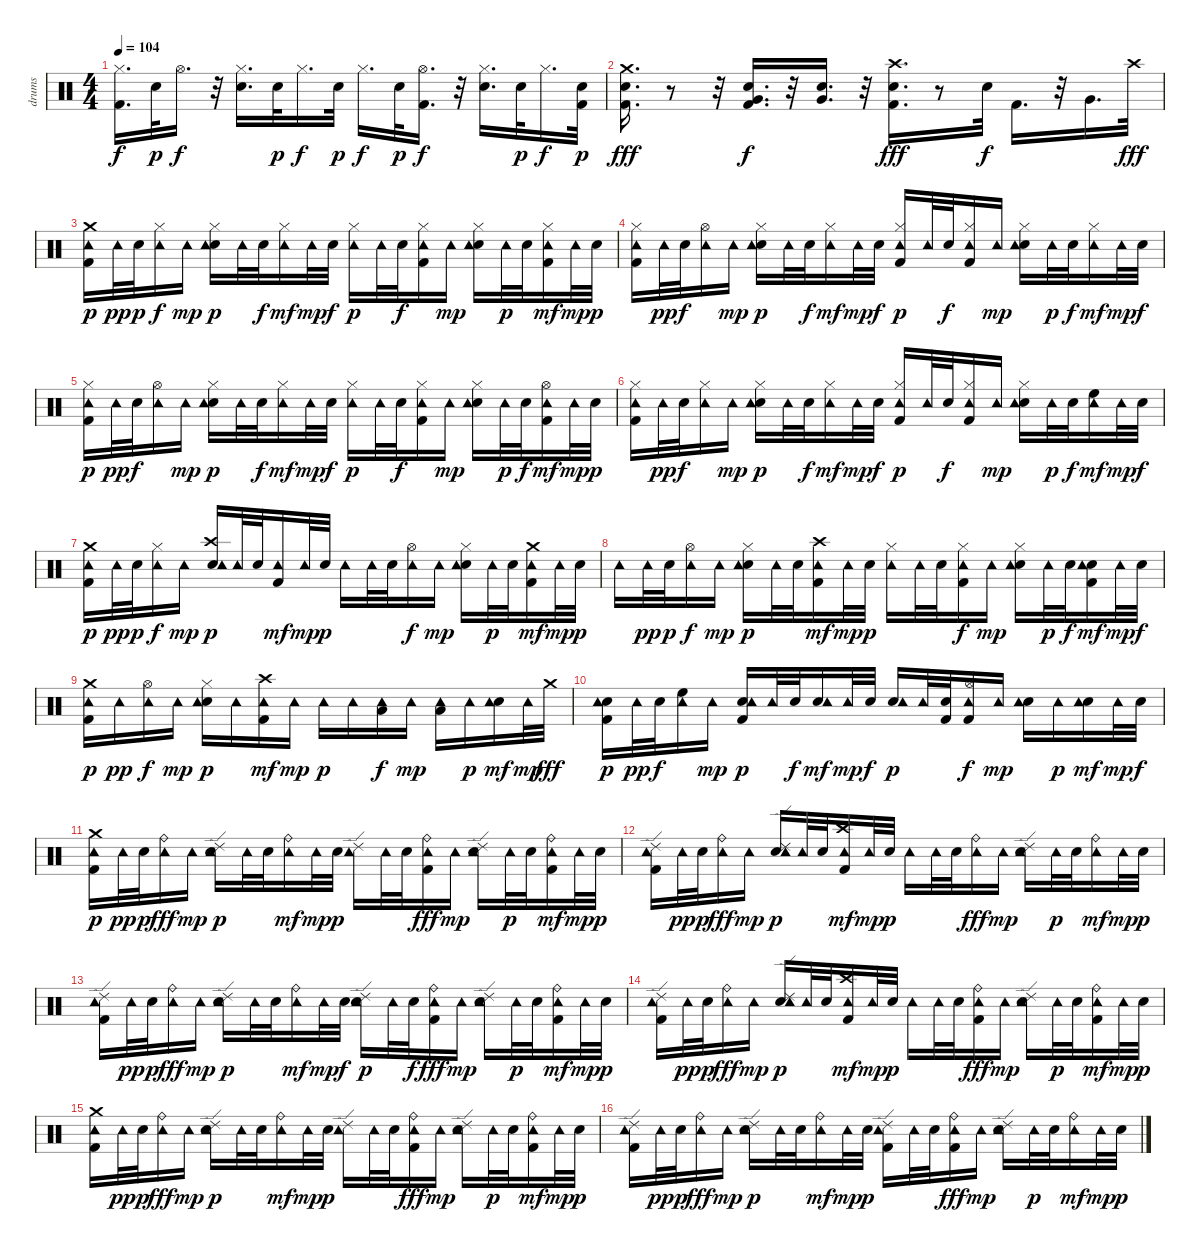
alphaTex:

\track ("drums" "drums") {instrument percussion}
\staff {score}
\articulation defaults
\ts (4 4)
\tempo 104
\clef neutral
\ks c
("Kick (hit) 2" "Hi-Hat (closed)").16{d dy f} "Electric Snare (hit)".32{dy p} "Hi-Hat (open)".16{d dy f} r.32 ("Electric Snare (hit)" "Hi-Hat (closed)").16{d} "Electric Snare (hit)".32{dy p} "Hi-Hat (closed)".16{d dy f} "Electric Snare (hit)".32{dy p} "Hi-Hat (closed)".16{d dy f} "Electric Snare (hit)".32{dy p} ("Kick (hit) 2" "Hi-Hat (open)").16{d dy f} r.32 ("Electric Snare (hit)" "Hi-Hat (closed)").16{d} "Electric Snare (hit)".32{dy p} "Hi-Hat (closed)".16{d dy f} ("Kick (hit) 2" "Electric Snare (hit)").32{dy p} |
("Electric Snare (hit)" "Kick (hit) 2" "Crash medium (hit)").16{d dy fff} r.8 r.32 ("Very Low Tom (hit)" "Electric Snare (hit)" "Kick (hit) 2").16{d dy f} r.32 ("Very Low Tom (hit)" "Electric Snare (hit)").16{d} r.32 ("Electric Snare (hit)" "Kick (hit) 2" "Crash high (hit)").16{d dy fff} r.8 "Electric Snare (hit)".32{dy f} "Kick (hit) 2".16{d} r.32 "Very Low Tom (hit)".16{d} "Crash high (hit)".32{dy fff} |
("Kick (hit) 2" "Crash medium (hit)" "Tambourine (hit)").16{dy p} "Tambourine (hit)".32{dy pp} "Electric Snare (hit)".32{dy p} ("Hi-Hat (closed)" "Tambourine (hit)").16{dy f} "Tambourine (hit)".16{dy mp} ("Electric Snare (hit)" "Hi-Hat (closed)" "Tambourine (hit)").16{dy p} "Tambourine (hit)".32 "Electric Snare (hit)".32{dy f} ("Hi-Hat (closed)" "Tambourine (hit)").16{dy mf} "Tambourine (hit)".32{dy mp} "Electric Snare (hit)".32{dy f} ("Hi-Hat (closed)" "Tambourine (hit)").16{dy p} "Tambourine (hit)".32 "Electric Snare (hit)".32{dy f} ("Kick (hit) 2" "Hi-Hat (closed)" "Tambourine (hit)").16 "Tambourine (hit)".16{dy mp} ("Electric Snare (hit)" "Hi-Hat (closed)" "Tambourine (hit)").16 "Tambourine (hit)".32{dy p} "Electric Snare (hit)".32 ("Kick (hit) 2" "Hi-Hat (closed)" "Tambourine (hit)").16{dy mf} "Tambourine (hit)".32{dy mp} "Electric Snare (hit)".32{dy p} |
("Kick (hit) 2" "Hi-Hat (closed)" "Tambourine (hit)").16 "Tambourine (hit)".32{dy pp} "Electric Snare (hit)".32{dy f} ("Hi-Hat (open)" "Tambourine (hit)").16 "Tambourine (hit)".16{dy mp} ("Electric Snare (hit)" "Hi-Hat (closed)" "Tambourine (hit)").16{dy p} "Tambourine (hit)".32 "Electric Snare (hit)".32{dy f} ("Hi-Hat (closed)" "Tambourine (hit)").16{dy mf} "Tambourine (hit)".32{dy mp} "Electric Snare (hit)".32{dy f} ("Kick (hit) 2" "Hi-Hat (closed)" "Tambourine (hit)").16{dy p} "Tambourine (hit)".32 "Electric Snare (hit)".32{dy f} ("Kick (hit) 2" "Hi-Hat (closed)" "Tambourine (hit)").16 "Tambourine (hit)".16{dy mp} ("Electric Snare (hit)" "Hi-Hat (closed)" "Tambourine (hit)").16 "Tambourine (hit)".32{dy p} "Electric Snare (hit)".32{dy f} ("Hi-Hat (closed)" "Tambourine (hit)").16{dy mf} "Tambourine (hit)".32{dy mp} "Electric Snare (hit)".32{dy f} |
("Kick (hit) 2" "Hi-Hat (closed)" "Tambourine (hit)").16{dy p} "Tambourine (hit)".32{dy pp} "Electric Snare (hit)".32{dy f} ("Hi-Hat (open)" "Tambourine (hit)").16 "Tambourine (hit)".16{dy mp} ("Electric Snare (hit)" "Hi-Hat (closed)" "Tambourine (hit)").16{dy p} "Tambourine (hit)".32 "Electric Snare (hit)".32{dy f} ("Hi-Hat (closed)" "Tambourine (hit)").16{dy mf} "Tambourine (hit)".32{dy mp} "Electric Snare (hit)".32{dy f} ("Hi-Hat (closed)" "Tambourine (hit)").16{dy p} "Tambourine (hit)".32 "Electric Snare (hit)".32{dy f} ("Kick (hit) 2" "Hi-Hat (closed)" "Tambourine (hit)").16 "Tambourine (hit)".16{dy mp} ("Electric Snare (hit)" "Hi-Hat (closed)" "Tambourine (hit)").16 "Tambourine (hit)".32{dy p} "Electric Snare (hit)".32{dy f} ("Kick (hit) 2" "Hi-Hat (open)" "Tambourine (hit)").16{dy mf} "Tambourine (hit)".32{dy mp} "Electric Snare (hit)".32{dy p} |
("Kick (hit) 2" "Hi-Hat (closed)" "Tambourine (hit)").16 "Tambourine (hit)".32{dy pp} "Electric Snare (hit)".32{dy f} ("Hi-Hat (closed)" "Tambourine (hit)").16 "Tambourine (hit)".16{dy mp} ("Electric Snare (hit)" "Hi-Hat (closed)" "Tambourine (hit)").16{dy p} "Tambourine (hit)".32 "Electric Snare (hit)".32{dy f} ("Hi-Hat (closed)" "Tambourine (hit)").16{dy mf} "Tambourine (hit)".32{dy mp} "Electric Snare (hit)".32{dy f} ("Kick (hit) 2" "Hi-Hat (closed)" "Tambourine (hit)").16{dy p} "Tambourine (hit)".32 "Electric Snare (hit)".32{dy f} ("Kick (hit) 2" "Hi-Hat (closed)" "Tambourine (hit)").16 "Tambourine (hit)".16{dy mp} ("Electric Snare (hit)" "Hi-Hat (closed)" "Tambourine (hit)").16 "Tambourine (hit)".32{dy p} "Electric Snare (hit)".32{dy f} ("High Floor Tom (hit)" "Tambourine (hit)").16{dy mf} "Tambourine (hit)".32{dy mp} "Electric Snare (hit)".32{dy f} |
("Kick (hit) 2" "Crash medium (hit)" "Tambourine (hit)").16{dy p} "Tambourine (hit)".32{dy pp} "Electric Snare (hit)".32{dy p} ("Hi-Hat (closed)" "Tambourine (hit)").16{dy f} "Tambourine (hit)".16{dy mp} ("Electric Snare (hit)" "Crash high (hit)" "Tambourine (hit)").16{dy p} "Tambourine (hit)".32 "Electric Snare (hit)".32 ("Kick (hit) 2" "Tambourine (hit)").16{dy mf} "Tambourine (hit)".32{dy mp} "Electric Snare (hit)".32{dy p} "Tambourine (hit)".16 "Tambourine (hit)".32 "Electric Snare (hit)".32 ("Hi-Hat (open)" "Tambourine (hit)").16{dy f} "Tambourine (hit)".16{dy mp} ("Electric Snare (hit)" "Hi-Hat (closed)" "Tambourine (hit)").16 "Tambourine (hit)".32{dy p} "Electric Snare (hit)".32 ("Kick (hit) 2" "Crash medium (hit)" "Tambourine (hit)").16{dy mf} "Tambourine (hit)".32{dy mp} "Electric Snare (hit)".32{dy p} |
"Tambourine (hit)".16 "Tambourine (hit)".32{dy pp} "Electric Snare (hit)".32{dy p} ("Hi-Hat (open)" "Tambourine (hit)").16{dy f} "Tambourine (hit)".16{dy mp} ("Electric Snare (hit)" "Hi-Hat (closed)" "Tambourine (hit)").16{dy p} "Tambourine (hit)".32 "Electric Snare (hit)".32 ("Kick (hit) 2" "Crash high (hit)" "Tambourine (hit)").16{dy mf} "Tambourine (hit)".32{dy mp} "Electric Snare (hit)".32{dy p} ("Hi-Hat (closed)" "Tambourine (hit)").16 "Tambourine (hit)".32 "Electric Snare (hit)".32 ("Kick (hit) 2" "Hi-Hat (closed)" "Tambourine (hit)").16{dy f} "Tambourine (hit)".16{dy mp} ("Electric Snare (hit)" "Hi-Hat (closed)" "Tambourine (hit)").16 "Tambourine (hit)".32{dy p} "Electric Snare (hit)".32{dy f} ("Kick (hit) 2" "Electric Snare (hit)" "Tambourine (hit)").16{dy mf} "Tambourine (hit)".32{dy mp} "Electric Snare (hit)".32{dy f} |
("Kick (hit) 2" "Crash medium (hit)" "Tambourine (hit)").16{dy p} "Tambourine (hit)".16{dy pp} ("Hi-Hat (open)" "Tambourine (hit)").16{dy f} "Tambourine (hit)".16{dy mp} ("Electric Snare (hit)" "Hi-Hat (closed)" "Tambourine (hit)").16{dy p} "Tambourine (hit)".16 ("Kick (hit) 2" "Crash high (hit)" "Tambourine (hit)").16{dy mf} "Tambourine (hit)".16{dy mp} "Tambourine (hit)".16{dy p} "Tambourine (hit)".16 ("Low Tom (hit)" "Tambourine (hit)").16{dy f} "Tambourine (hit)".16{dy mp} ("Low Tom (hit)" "Tambourine (hit)").16 "Tambourine (hit)".16{dy p} ("Electric Snare (hit)" "Tambourine (hit)").16{dy mf} "Tambourine (hit)".32{dy mp} "Crash medium (hit)".32{dy fff} |
("Electric Snare (hit)" "Kick (hit) 2" "Tambourine (hit)").16{dy p} "Tambourine (hit)".32{dy pp} "Electric Snare (hit)".32{dy f} ("High Floor Tom (hit)" "Tambourine (hit)").16 "Tambourine (hit)".16{dy mp} ("Kick (hit) 2" "Electric Snare (hit)" "Tambourine (hit)").16{dy p} "Tambourine (hit)".32 "Electric Snare (hit)".32{dy f} ("Electric Snare (hit)" "Tambourine (hit)").16{dy mf} "Tambourine (hit)".32{dy mp} "Electric Snare (hit)".32{dy f} ("Electric Snare (hit)" "Tambourine (hit)").16{dy p} "Tambourine (hit)".32 ("Kick (hit) 2" "Electric Snare (hit)").32 ("Kick (hit) 2" "Hi-Hat (open)" "Tambourine (hit)").16{dy f} "Tambourine (hit)".16{dy mp} ("Electric Snare (hit)" "Tambourine (hit)").16 "Tambourine (hit)".16{dy p} ("Electric Snare (hit)" "Tambourine (hit)").16{dy mf} "Tambourine (hit)".32{dy mp} "Electric Snare (hit)".32{dy f} |
("Kick (hit) 2" "Crash medium (hit)" "Tambourine (hit)").16{dy p} "Tambourine (hit)".32{dy pp} "Electric Snare (hit)".32{dy p} ("Ride (bell)" "Tambourine (hit)").16{dy fff} "Tambourine (hit)".16{dy mp} ("Electric Snare (hit)" "Ride (edge) 2" "Tambourine (hit)").16{dy p} "Tambourine (hit)".32 "Electric Snare (hit)".32 ("Ride (bell)" "Tambourine (hit)").16{dy mf} "Tambourine (hit)".32{dy mp} "Electric Snare (hit)".32{dy p} ("Ride (edge) 2" "Tambourine (hit)").16 "Tambourine (hit)".32 "Electric Snare (hit)".32 ("Kick (hit) 2" "Ride (bell)" "Tambourine (hit)").16{dy fff} "Tambourine (hit)".16{dy mp} ("Electric Snare (hit)" "Ride (edge) 2" "Tambourine (hit)").16 "Tambourine (hit)".32{dy p} "Electric Snare (hit)".32 ("Kick (hit) 2" "Ride (bell)" "Tambourine (hit)").16{dy mf} "Tambourine (hit)".32{dy mp} "Electric Snare (hit)".32{dy p} |
("Kick (hit) 2" "Ride (edge) 2" "Tambourine (hit)").16 "Tambourine (hit)".32{dy pp} "Electric Snare (hit)".32{dy p} ("Ride (bell)" "Tambourine (hit)").16{dy fff} "Tambourine (hit)".16{dy mp} ("Electric Snare (hit)" "Ride (edge) 2" "Tambourine (hit)").16{dy p} "Tambourine (hit)".32 "Electric Snare (hit)".32 ("Kick (hit) 2" "Crash high (hit)" "Tambourine (hit)").16{dy mf} "Tambourine (hit)".32{dy mp} "Electric Snare (hit)".32{dy p} "Tambourine (hit)".16 "Tambourine (hit)".32 "Electric Snare (hit)".32 ("Ride (bell)" "Tambourine (hit)").16{dy fff} "Tambourine (hit)".16{dy mp} ("Electric Snare (hit)" "Ride (edge) 2" "Tambourine (hit)").16 "Tambourine (hit)".32{dy p} "Electric Snare (hit)".32 ("Ride (bell)" "Tambourine (hit)").16{dy mf} "Tambourine (hit)".32{dy mp} "Electric Snare (hit)".32{dy p} |
("Kick (hit) 2" "Ride (edge) 2" "Tambourine (hit)").16 "Tambourine (hit)".32{dy pp} "Electric Snare (hit)".32{dy p} ("Ride (bell)" "Tambourine (hit)").16{dy fff} "Tambourine (hit)".16{dy mp} ("Electric Snare (hit)" "Ride (edge) 2" "Tambourine (hit)").16{dy p} "Tambourine (hit)".32 "Electric Snare (hit)".32 ("Ride (bell)" "Tambourine (hit)").16{dy mf} "Tambourine (hit)".32{dy mp} "Electric Snare (hit)".32{dy f} ("Electric Snare (hit)" "Ride (edge) 2" "Tambourine (hit)").16{dy p} "Tambourine (hit)".32 "Electric Snare (hit)".32{dy f} ("Kick (hit) 2" "Ride (bell)" "Tambourine (hit)").16{dy fff} "Tambourine (hit)".16{dy mp} ("Electric Snare (hit)" "Ride (edge) 2" "Tambourine (hit)").16 "Tambourine (hit)".32{dy p} "Electric Snare (hit)".32 ("Kick (hit) 2" "Ride (bell)" "Tambourine (hit)").16{dy mf} "Tambourine (hit)".32{dy mp} "Electric Snare (hit)".32{dy p} |
("Kick (hit) 2" "Ride (edge) 2" "Tambourine (hit)").16 "Tambourine (hit)".32{dy pp} "Electric Snare (hit)".32{dy p} ("Ride (bell)" "Tambourine (hit)").16{dy fff} "Tambourine (hit)".16{dy mp} ("Electric Snare (hit)" "Ride (edge) 2" "Tambourine (hit)").16{dy p} "Tambourine (hit)".32 "Electric Snare (hit)".32 ("Kick (hit) 2" "Crash high (hit)" "Tambourine (hit)").16{dy mf} "Tambourine (hit)".32{dy mp} "Electric Snare (hit)".32{dy p} "Tambourine (hit)".16 "Tambourine (hit)".32 "Electric Snare (hit)".32 ("Kick (hit) 2" "Ride (bell)" "Tambourine (hit)").16{dy fff} "Tambourine (hit)".16{dy mp} ("Electric Snare (hit)" "Ride (edge) 2" "Tambourine (hit)").16 "Tambourine (hit)".32{dy p} "Electric Snare (hit)".32 ("Kick (hit) 2" "Ride (bell)" "Tambourine (hit)").16{dy mf} "Tambourine (hit)".32{dy mp} "Electric Snare (hit)".32{dy p} |
("Kick (hit) 2" "Crash medium (hit)" "Tambourine (hit)").16 "Tambourine (hit)".32{dy pp} "Electric Snare (hit)".32{dy p} ("Ride (bell)" "Tambourine (hit)").16{dy fff} "Tambourine (hit)".16{dy mp} ("Electric Snare (hit)" "Ride (edge) 2" "Tambourine (hit)").16{dy p} "Tambourine (hit)".32 "Electric Snare (hit)".32 ("Ride (bell)" "Tambourine (hit)").16{dy mf} "Tambourine (hit)".32{dy mp} "Electric Snare (hit)".32{dy p} ("Ride (edge) 2" "Tambourine (hit)").16 "Tambourine (hit)".32 "Electric Snare (hit)".32 ("Kick (hit) 2" "Ride (bell)" "Tambourine (hit)").16{dy fff} "Tambourine (hit)".16{dy mp} ("Electric Snare (hit)" "Ride (edge) 2" "Tambourine (hit)").16 "Tambourine (hit)".32{dy p} "Electric Snare (hit)".32 ("Kick (hit) 2" "Ride (bell)" "Tambourine (hit)").16{dy mf} "Tambourine (hit)".32{dy mp} "Electric Snare (hit)".32{dy p} |
("Kick (hit) 2" "Ride (edge) 2" "Tambourine (hit)").16 "Tambourine (hit)".32{dy pp} "Electric Snare (hit)".32{dy p} ("Ride (bell)" "Tambourine (hit)").16{dy fff} "Tambourine (hit)".16{dy mp} ("Electric Snare (hit)" "Ride (edge) 2" "Tambourine (hit)").16{dy p} "Tambourine (hit)".32 "Electric Snare (hit)".32 ("Ride (bell)" "Tambourine (hit)").16{dy mf} "Tambourine (hit)".32{dy mp} "Electric Snare (hit)".32{dy p} ("Kick (hit) 2" "Ride (edge) 2" "Tambourine (hit)").16 "Tambourine (hit)".32 "Electric Snare (hit)".32 ("Kick (hit) 2" "Ride (bell)" "Tambourine (hit)").16{dy fff} "Tambourine (hit)".16{dy mp} ("Electric Snare (hit)" "Ride (edge) 2" "Tambourine (hit)").16 "Tambourine (hit)".32{dy p} "Electric Snare (hit)".32 ("Ride (bell)" "Tambourine (hit)").16{dy mf} "Tambourine (hit)".32{dy mp} "Electric Snare (hit)".32{dy p}
